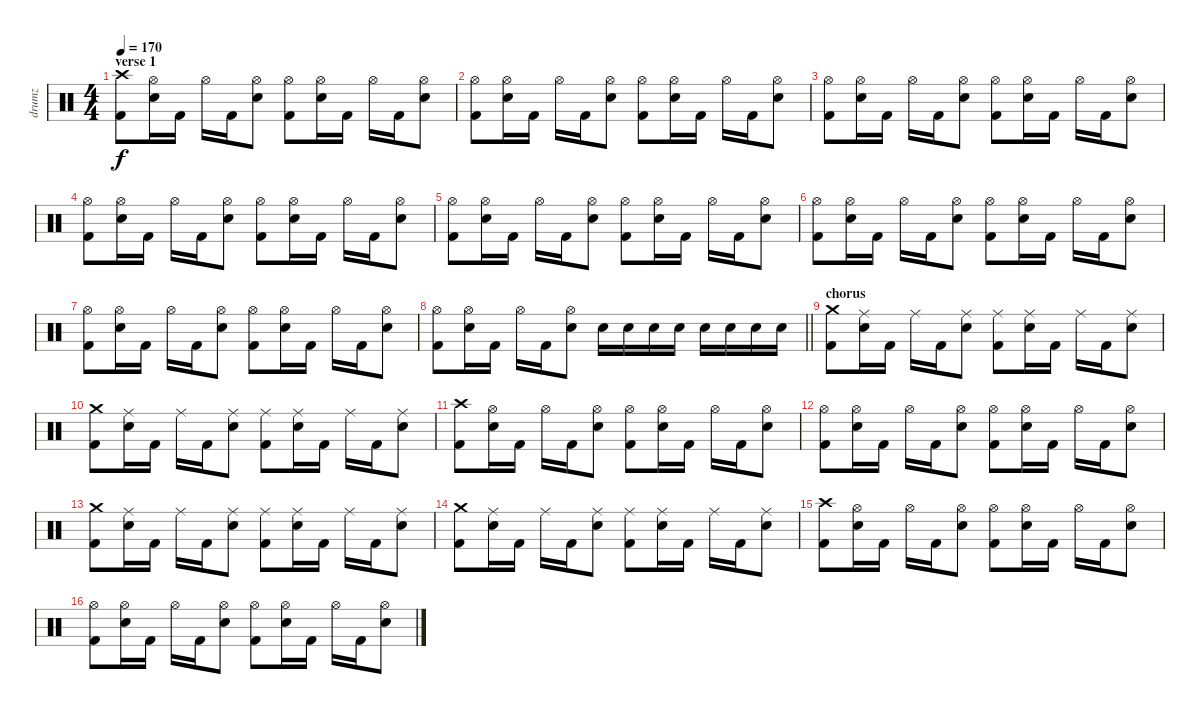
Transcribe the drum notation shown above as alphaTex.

\track ("drumz" "drumz") {instrument percussion}
\staff {score}
\articulation defaults
\ts (4 4)
\section ("" "verse 1")
\tempo 170
\clef neutral
\ks c
("Crash high (hit)" "Kick (hit) 2").8{dy f} ("Hi-Hat (open)" "Electric Snare (hit)").16 "Kick (hit) 2".16 "Hi-Hat (open)".16 "Kick (hit) 2".16 ("Hi-Hat (open)" "Electric Snare (hit)").8 ("Hi-Hat (open)" "Kick (hit) 2").8 ("Hi-Hat (open)" "Electric Snare (hit)").16 "Kick (hit) 2".16 "Hi-Hat (open)".16 "Kick (hit) 2".16 ("Hi-Hat (open)" "Electric Snare (hit)").8 |
("Hi-Hat (open)" "Kick (hit) 2").8 ("Hi-Hat (open)" "Electric Snare (hit)").16 "Kick (hit) 2".16 "Hi-Hat (open)".16 "Kick (hit) 2".16 ("Hi-Hat (open)" "Electric Snare (hit)").8 ("Hi-Hat (open)" "Kick (hit) 2").8 ("Hi-Hat (open)" "Electric Snare (hit)").16 "Kick (hit) 2".16 "Hi-Hat (open)".16 "Kick (hit) 2".16 ("Hi-Hat (open)" "Electric Snare (hit)").8 |
("Hi-Hat (open)" "Kick (hit) 2").8 ("Hi-Hat (open)" "Electric Snare (hit)").16 "Kick (hit) 2".16 "Hi-Hat (open)".16 "Kick (hit) 2".16 ("Hi-Hat (open)" "Electric Snare (hit)").8 ("Hi-Hat (open)" "Kick (hit) 2").8 ("Hi-Hat (open)" "Electric Snare (hit)").16 "Kick (hit) 2".16 "Hi-Hat (open)".16 "Kick (hit) 2".16 ("Hi-Hat (open)" "Electric Snare (hit)").8 |
("Hi-Hat (open)" "Kick (hit) 2").8 ("Hi-Hat (open)" "Electric Snare (hit)").16 "Kick (hit) 2".16 "Hi-Hat (open)".16 "Kick (hit) 2".16 ("Hi-Hat (open)" "Electric Snare (hit)").8 ("Hi-Hat (open)" "Kick (hit) 2").8 ("Hi-Hat (open)" "Electric Snare (hit)").16 "Kick (hit) 2".16 "Hi-Hat (open)".16 "Kick (hit) 2".16 ("Hi-Hat (open)" "Electric Snare (hit)").8 |
("Hi-Hat (open)" "Kick (hit) 2").8 ("Hi-Hat (open)" "Electric Snare (hit)").16 "Kick (hit) 2".16 "Hi-Hat (open)".16 "Kick (hit) 2".16 ("Hi-Hat (open)" "Electric Snare (hit)").8 ("Hi-Hat (open)" "Kick (hit) 2").8 ("Hi-Hat (open)" "Electric Snare (hit)").16 "Kick (hit) 2".16 "Hi-Hat (open)".16 "Kick (hit) 2".16 ("Hi-Hat (open)" "Electric Snare (hit)").8 |
("Hi-Hat (open)" "Kick (hit) 2").8 ("Hi-Hat (open)" "Electric Snare (hit)").16 "Kick (hit) 2".16 "Hi-Hat (open)".16 "Kick (hit) 2".16 ("Hi-Hat (open)" "Electric Snare (hit)").8 ("Hi-Hat (open)" "Kick (hit) 2").8 ("Hi-Hat (open)" "Electric Snare (hit)").16 "Kick (hit) 2".16 "Hi-Hat (open)".16 "Kick (hit) 2".16 ("Hi-Hat (open)" "Electric Snare (hit)").8 |
("Hi-Hat (open)" "Kick (hit) 2").8 ("Hi-Hat (open)" "Electric Snare (hit)").16 "Kick (hit) 2".16 "Hi-Hat (open)".16 "Kick (hit) 2".16 ("Hi-Hat (open)" "Electric Snare (hit)").8 ("Hi-Hat (open)" "Kick (hit) 2").8 ("Hi-Hat (open)" "Electric Snare (hit)").16 "Kick (hit) 2".16 "Hi-Hat (open)".16 "Kick (hit) 2".16 ("Hi-Hat (open)" "Electric Snare (hit)").8 |
\barLineRight lightlight
("Hi-Hat (open)" "Kick (hit) 2").8 ("Hi-Hat (open)" "Electric Snare (hit)").16 "Kick (hit) 2".16 "Hi-Hat (open)".16 "Kick (hit) 2".16 ("Hi-Hat (open)" "Electric Snare (hit)").8 "Electric Snare (hit)".16 "Electric Snare (hit)".16 "Electric Snare (hit)".16 "Electric Snare (hit)".16 "Electric Snare (hit)".16 "Electric Snare (hit)".16 "Electric Snare (hit)".16 "Electric Snare (hit)".16 |
\section ("" "chorus")
("Crash medium (hit)" "Kick (hit) 2").8 ("Ride (middle)" "Electric Snare (hit)").16 "Kick (hit) 2".16 "Ride (middle)".16 "Kick (hit) 2".16 ("Ride (middle)" "Electric Snare (hit)").8 ("Ride (middle)" "Kick (hit) 2").8 ("Ride (middle)" "Electric Snare (hit)").16 "Kick (hit) 2".16 "Ride (middle)".16 "Kick (hit) 2".16 ("Ride (middle)" "Electric Snare (hit)").8 |
("Crash medium (hit)" "Kick (hit) 2").8 ("Ride (middle)" "Electric Snare (hit)").16 "Kick (hit) 2".16 "Ride (middle)".16 "Kick (hit) 2".16 ("Ride (middle)" "Electric Snare (hit)").8 ("Ride (middle)" "Kick (hit) 2").8 ("Ride (middle)" "Electric Snare (hit)").16 "Kick (hit) 2".16 "Ride (middle)".16 "Kick (hit) 2".16 ("Ride (middle)" "Electric Snare (hit)").8 |
("Crash high (hit)" "Kick (hit) 2").8 ("Hi-Hat (open)" "Electric Snare (hit)").16 "Kick (hit) 2".16 "Hi-Hat (open)".16 "Kick (hit) 2".16 ("Hi-Hat (open)" "Electric Snare (hit)").8 ("Hi-Hat (open)" "Kick (hit) 2").8 ("Hi-Hat (open)" "Electric Snare (hit)").16 "Kick (hit) 2".16 "Hi-Hat (open)".16 "Kick (hit) 2".16 ("Hi-Hat (open)" "Electric Snare (hit)").8 |
("Hi-Hat (open)" "Kick (hit) 2").8 ("Hi-Hat (open)" "Electric Snare (hit)").16 "Kick (hit) 2".16 "Hi-Hat (open)".16 "Kick (hit) 2".16 ("Hi-Hat (open)" "Electric Snare (hit)").8 ("Hi-Hat (open)" "Kick (hit) 2").8 ("Hi-Hat (open)" "Electric Snare (hit)").16 "Kick (hit) 2".16 "Hi-Hat (open)".16 "Kick (hit) 2".16 ("Hi-Hat (open)" "Electric Snare (hit)").8 |
("Crash medium (hit)" "Kick (hit) 2").8 ("Ride (middle)" "Electric Snare (hit)").16 "Kick (hit) 2".16 "Ride (middle)".16 "Kick (hit) 2".16 ("Ride (middle)" "Electric Snare (hit)").8 ("Ride (middle)" "Kick (hit) 2").8 ("Ride (middle)" "Electric Snare (hit)").16 "Kick (hit) 2".16 "Ride (middle)".16 "Kick (hit) 2".16 ("Ride (middle)" "Electric Snare (hit)").8 |
("Crash medium (hit)" "Kick (hit) 2").8 ("Ride (middle)" "Electric Snare (hit)").16 "Kick (hit) 2".16 "Ride (middle)".16 "Kick (hit) 2".16 ("Ride (middle)" "Electric Snare (hit)").8 ("Ride (middle)" "Kick (hit) 2").8 ("Ride (middle)" "Electric Snare (hit)").16 "Kick (hit) 2".16 "Ride (middle)".16 "Kick (hit) 2".16 ("Ride (middle)" "Electric Snare (hit)").8 |
("Crash high (hit)" "Kick (hit) 2").8 ("Hi-Hat (open)" "Electric Snare (hit)").16 "Kick (hit) 2".16 "Hi-Hat (open)".16 "Kick (hit) 2".16 ("Hi-Hat (open)" "Electric Snare (hit)").8 ("Hi-Hat (open)" "Kick (hit) 2").8 ("Hi-Hat (open)" "Electric Snare (hit)").16 "Kick (hit) 2".16 "Hi-Hat (open)".16 "Kick (hit) 2".16 ("Hi-Hat (open)" "Electric Snare (hit)").8 |
("Hi-Hat (open)" "Kick (hit) 2").8 ("Hi-Hat (open)" "Electric Snare (hit)").16 "Kick (hit) 2".16 "Hi-Hat (open)".16 "Kick (hit) 2".16 ("Hi-Hat (open)" "Electric Snare (hit)").8 ("Hi-Hat (open)" "Kick (hit) 2").8 ("Hi-Hat (open)" "Electric Snare (hit)").16 "Kick (hit) 2".16 "Hi-Hat (open)".16 "Kick (hit) 2".16 ("Hi-Hat (open)" "Electric Snare (hit)").8
